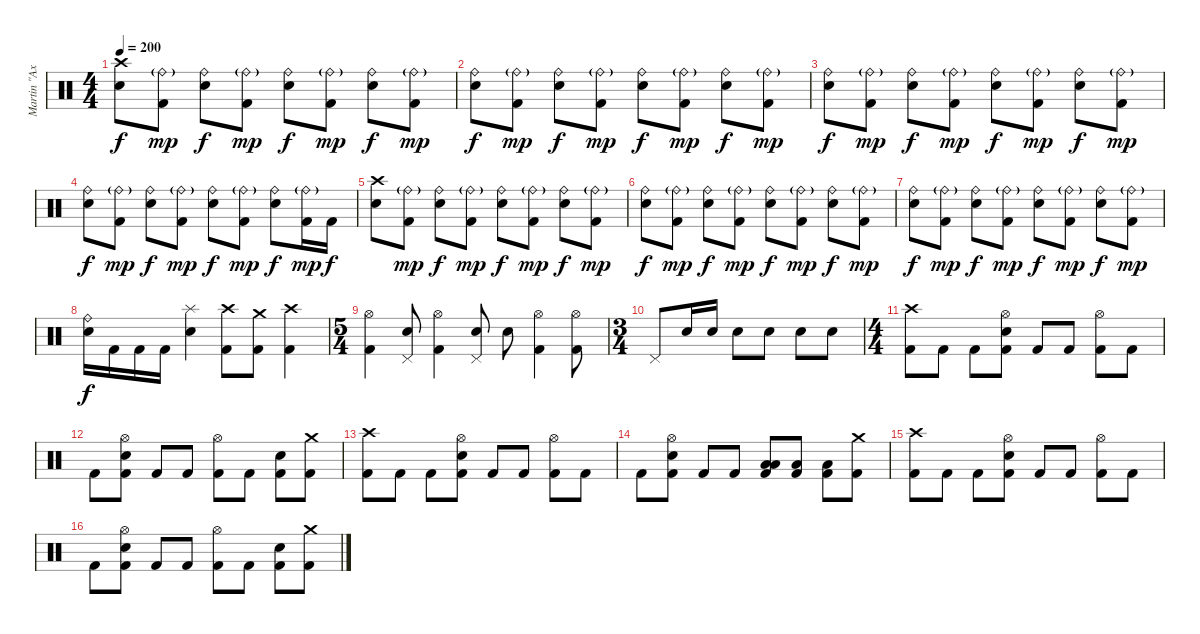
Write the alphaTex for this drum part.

\track ("Martin \"Axe\" Axenrot" "Martin \"Ax") {instrument percussion}
\staff {score}
\articulation defaults
\ts (4 4)
\tempo 200
\clef neutral
\ks c
("Crash high (hit)" "Electric Snare (hit)").8{dy f} ("Ride (bell)"{g} "Kick (hit) 2").8{dy mp} ("Ride (bell)" "Electric Snare (hit)").8{dy f} ("Ride (bell)"{g} "Kick (hit) 2").8{dy mp} ("Ride (bell)" "Electric Snare (hit)").8{dy f} ("Ride (bell)"{g} "Kick (hit) 2").8{dy mp} ("Ride (bell)" "Electric Snare (hit)").8{dy f} ("Ride (bell)"{g} "Kick (hit) 2").8{dy mp} |
("Ride (bell)" "Electric Snare (hit)").8{dy f} ("Ride (bell)"{g} "Kick (hit) 2").8{dy mp} ("Ride (bell)" "Electric Snare (hit)").8{dy f} ("Ride (bell)"{g} "Kick (hit) 2").8{dy mp} ("Ride (bell)" "Electric Snare (hit)").8{dy f} ("Ride (bell)"{g} "Kick (hit) 2").8{dy mp} ("Ride (bell)" "Electric Snare (hit)").8{dy f} ("Ride (bell)"{g} "Kick (hit) 2").8{dy mp} |
("Ride (bell)" "Electric Snare (hit)").8{dy f} ("Ride (bell)"{g} "Kick (hit) 2").8{dy mp} ("Ride (bell)" "Electric Snare (hit)").8{dy f} ("Ride (bell)"{g} "Kick (hit) 2").8{dy mp} ("Ride (bell)" "Electric Snare (hit)").8{dy f} ("Ride (bell)"{g} "Kick (hit) 2").8{dy mp} ("Ride (bell)" "Electric Snare (hit)").8{dy f} ("Ride (bell)"{g} "Kick (hit) 2").8{dy mp} |
("Ride (bell)" "Electric Snare (hit)").8{dy f} ("Ride (bell)"{g} "Kick (hit) 2").8{dy mp} ("Ride (bell)" "Electric Snare (hit)").8{dy f} ("Ride (bell)"{g} "Kick (hit) 2").8{dy mp} ("Ride (bell)" "Electric Snare (hit)").8{dy f} ("Ride (bell)"{g} "Kick (hit) 2").8{dy mp} ("Ride (bell)" "Electric Snare (hit)").8{dy f} ("Ride (bell)"{g} "Kick (hit) 2").16{dy mp} "Kick (hit) 2".16{dy f} |
("Crash high (hit)" "Electric Snare (hit)").8 ("Ride (bell)"{g} "Kick (hit) 2").8{dy mp} ("Ride (bell)" "Electric Snare (hit)").8{dy f} ("Ride (bell)"{g} "Kick (hit) 2").8{dy mp} ("Ride (bell)" "Electric Snare (hit)").8{dy f} ("Ride (bell)"{g} "Kick (hit) 2").8{dy mp} ("Ride (bell)" "Electric Snare (hit)").8{dy f} ("Ride (bell)"{g} "Kick (hit) 2").8{dy mp} |
("Ride (bell)" "Electric Snare (hit)").8{dy f} ("Ride (bell)"{g} "Kick (hit) 2").8{dy mp} ("Ride (bell)" "Electric Snare (hit)").8{dy f} ("Ride (bell)"{g} "Kick (hit) 2").8{dy mp} ("Ride (bell)" "Electric Snare (hit)").8{dy f} ("Ride (bell)"{g} "Kick (hit) 2").8{dy mp} ("Ride (bell)" "Electric Snare (hit)").8{dy f} ("Ride (bell)"{g} "Kick (hit) 2").8{dy mp} |
("Ride (bell)" "Electric Snare (hit)").8{dy f} ("Ride (bell)"{g} "Kick (hit) 2").8{dy mp} ("Ride (bell)" "Electric Snare (hit)").8{dy f} ("Ride (bell)"{g} "Kick (hit) 2").8{dy mp} ("Ride (bell)" "Electric Snare (hit)").8{dy f} ("Ride (bell)"{g} "Kick (hit) 2").8{dy mp} ("Ride (bell)" "Electric Snare (hit)").8{dy f} ("Ride (bell)"{g} "Kick (hit) 2").8{dy mp} |
("Ride (bell)" "Electric Snare (hit)").16{dy f} "Kick (hit) 2".16 "Kick (hit) 2".16 "Kick (hit) 2".16 ("Splash (hit)" "Electric Snare (hit)").4 ("Crash high (hit)" "Kick (hit) 2").8 ("Crash medium (hit)" "Kick (hit) 2").8 ("Crash high (hit)" "Kick (hit) 2").4 |
\ts (5 4)
("Hi-Hat (open)" "Kick (hit) 2").4 ("Pedal Hi-Hat (hit)" "Electric Snare (hit)").8 ("Hi-Hat (open)" "Kick (hit) 2").4 ("Pedal Hi-Hat (hit)" "Electric Snare (hit)").8 "Electric Snare (hit)".8 ("Hi-Hat (open)" "Kick (hit) 2").4 ("Hi-Hat (open)" "Kick (hit) 2").8 |
\ts (3 4)
"Pedal Hi-Hat (hit)".8 "Electric Snare (hit)".16 "Electric Snare (hit)".16 "Electric Snare (hit)".8 "Electric Snare (hit)".8 "Electric Snare (hit)".8 "Electric Snare (hit)".8 |
\ts (4 4)
("Crash high (hit)" "Kick (hit) 2").8 "Kick (hit) 2".8 "Kick (hit) 2".8 ("Hi-Hat (open)" "Electric Snare (hit)" "Kick (hit) 2").8 "Kick (hit) 2".8 "Kick (hit) 2".8 ("Hi-Hat (open)" "Kick (hit) 2").8 "Kick (hit) 2".8 |
"Kick (hit) 2".8 ("Hi-Hat (open)" "Electric Snare (hit)" "Kick (hit) 2").8 "Kick (hit) 2".8 "Kick (hit) 2".8 ("Hi-Hat (open)" "Kick (hit) 2").8 "Kick (hit) 2".8 ("Electric Snare (hit)" "Kick (hit) 2").8 ("Crash medium (hit)" "Kick (hit) 2").8 |
("Crash high (hit)" "Kick (hit) 2").8 "Kick (hit) 2".8 "Kick (hit) 2".8 ("Hi-Hat (open)" "Electric Snare (hit)" "Kick (hit) 2").8 "Kick (hit) 2".8 "Kick (hit) 2".8 ("Hi-Hat (open)" "Kick (hit) 2").8 "Kick (hit) 2".8 |
"Kick (hit) 2".8 ("Hi-Hat (open)" "Electric Snare (hit)" "Kick (hit) 2").8 "Kick (hit) 2".8 "Kick (hit) 2".8 ("Low Tom (hit)" "Low Floor Tom (hit)" "Kick (hit) 2").8 ("Low Tom (hit)" "Kick (hit) 2").8 ("Low Floor Tom (hit)" "Kick (hit) 2").8 ("Crash medium (hit)" "Kick (hit) 2").8 |
("Crash high (hit)" "Kick (hit) 2").8 "Kick (hit) 2".8 "Kick (hit) 2".8 ("Hi-Hat (open)" "Electric Snare (hit)" "Kick (hit) 2").8 "Kick (hit) 2".8 "Kick (hit) 2".8 ("Hi-Hat (open)" "Kick (hit) 2").8 "Kick (hit) 2".8 |
"Kick (hit) 2".8 ("Hi-Hat (open)" "Electric Snare (hit)" "Kick (hit) 2").8 "Kick (hit) 2".8 "Kick (hit) 2".8 ("Hi-Hat (open)" "Kick (hit) 2").8 "Kick (hit) 2".8 ("Electric Snare (hit)" "Kick (hit) 2").8 ("Crash medium (hit)" "Kick (hit) 2").8
